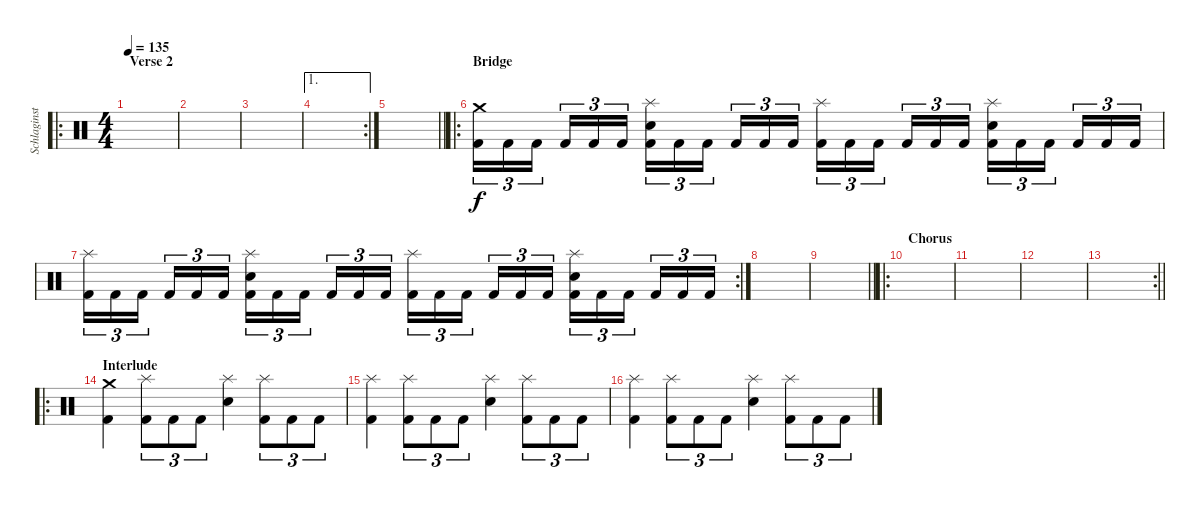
\track ("Schlaginstrumente - Auswahl" "Schlaginst") {instrument percussion}
\staff {score}
\articulation defaults
\ro
\ts (4 4)
\section ("" "Verse 2")
\tempo 135
\clef neutral
\ks c
|
|
|
\ae 1
\rc 2
|
\barLineRight lightlight
|
\ro
\section ("" "Bridge")
("Kick (hit) 2" "Crash medium (hit)").16{tu (3 2)} "Kick (hit) 2".16{tu (3 2)} "Kick (hit) 2".16{tu (3 2) beam splitsecondary} "Kick (hit) 2".16{tu (3 2)} "Kick (hit) 2".16{tu (3 2)} "Kick (hit) 2".16{tu (3 2)} ("Kick (hit) 2" "Electric Snare (hit)" "Splash (hit)").16{tu (3 2)} "Kick (hit) 2".16{tu (3 2)} "Kick (hit) 2".16{tu (3 2) beam splitsecondary} "Kick (hit) 2".16{tu (3 2)} "Kick (hit) 2".16{tu (3 2)} "Kick (hit) 2".16{tu (3 2)} ("Kick (hit) 2" "Splash (hit)").16{tu (3 2)} "Kick (hit) 2".16{tu (3 2)} "Kick (hit) 2".16{tu (3 2) beam splitsecondary} "Kick (hit) 2".16{tu (3 2)} "Kick (hit) 2".16{tu (3 2)} "Kick (hit) 2".16{tu (3 2)} ("Kick (hit) 2" "Electric Snare (hit)" "Splash (hit)").16{tu (3 2)} "Kick (hit) 2".16{tu (3 2)} "Kick (hit) 2".16{tu (3 2) beam splitsecondary} "Kick (hit) 2".16{tu (3 2)} "Kick (hit) 2".16{tu (3 2)} "Kick (hit) 2".16{tu (3 2)} |
\rc 2
("Kick (hit) 2" "Splash (hit)").16{tu (3 2)} "Kick (hit) 2".16{tu (3 2)} "Kick (hit) 2".16{tu (3 2) beam splitsecondary} "Kick (hit) 2".16{tu (3 2)} "Kick (hit) 2".16{tu (3 2)} "Kick (hit) 2".16{tu (3 2)} ("Kick (hit) 2" "Electric Snare (hit)" "Splash (hit)").16{tu (3 2)} "Kick (hit) 2".16{tu (3 2)} "Kick (hit) 2".16{tu (3 2) beam splitsecondary} "Kick (hit) 2".16{tu (3 2)} "Kick (hit) 2".16{tu (3 2)} "Kick (hit) 2".16{tu (3 2)} ("Kick (hit) 2" "Splash (hit)").16{tu (3 2)} "Kick (hit) 2".16{tu (3 2)} "Kick (hit) 2".16{tu (3 2) beam splitsecondary} "Kick (hit) 2".16{tu (3 2)} "Kick (hit) 2".16{tu (3 2)} "Kick (hit) 2".16{tu (3 2)} ("Kick (hit) 2" "Electric Snare (hit)" "Splash (hit)").16{tu (3 2)} "Kick (hit) 2".16{tu (3 2)} "Kick (hit) 2".16{tu (3 2) beam splitsecondary} "Kick (hit) 2".16{tu (3 2)} "Kick (hit) 2".16{tu (3 2)} "Kick (hit) 2".16{tu (3 2)} |
|
\barLineRight lightlight
|
\ro
\section ("" "Chorus")
|
|
|
\rc 2
\barLineRight lightlight
|
\ro
\section ("" "Interlude")
("Crash medium (hit)" "Kick (hit) 2").4{dy f} ("Splash (hit)" "Kick (hit) 2").8{tu (3 2)} "Kick (hit) 2".8{tu (3 2)} "Kick (hit) 2".8{tu (3 2)} ("Splash (hit)" "Electric Snare (hit)").4 ("Splash (hit)" "Kick (hit) 2").8{tu (3 2)} "Kick (hit) 2".8{tu (3 2)} "Kick (hit) 2".8{tu (3 2)} |
("Splash (hit)" "Kick (hit) 2").4 ("Splash (hit)" "Kick (hit) 2").8{tu (3 2)} "Kick (hit) 2".8{tu (3 2)} "Kick (hit) 2".8{tu (3 2)} ("Splash (hit)" "Electric Snare (hit)").4 ("Splash (hit)" "Kick (hit) 2").8{tu (3 2)} "Kick (hit) 2".8{tu (3 2)} "Kick (hit) 2".8{tu (3 2)} |
("Splash (hit)" "Kick (hit) 2").4 ("Splash (hit)" "Kick (hit) 2").8{tu (3 2)} "Kick (hit) 2".8{tu (3 2)} "Kick (hit) 2".8{tu (3 2)} ("Splash (hit)" "Electric Snare (hit)").4 ("Splash (hit)" "Kick (hit) 2").8{tu (3 2)} "Kick (hit) 2".8{tu (3 2)} "Kick (hit) 2".8{tu (3 2)}
